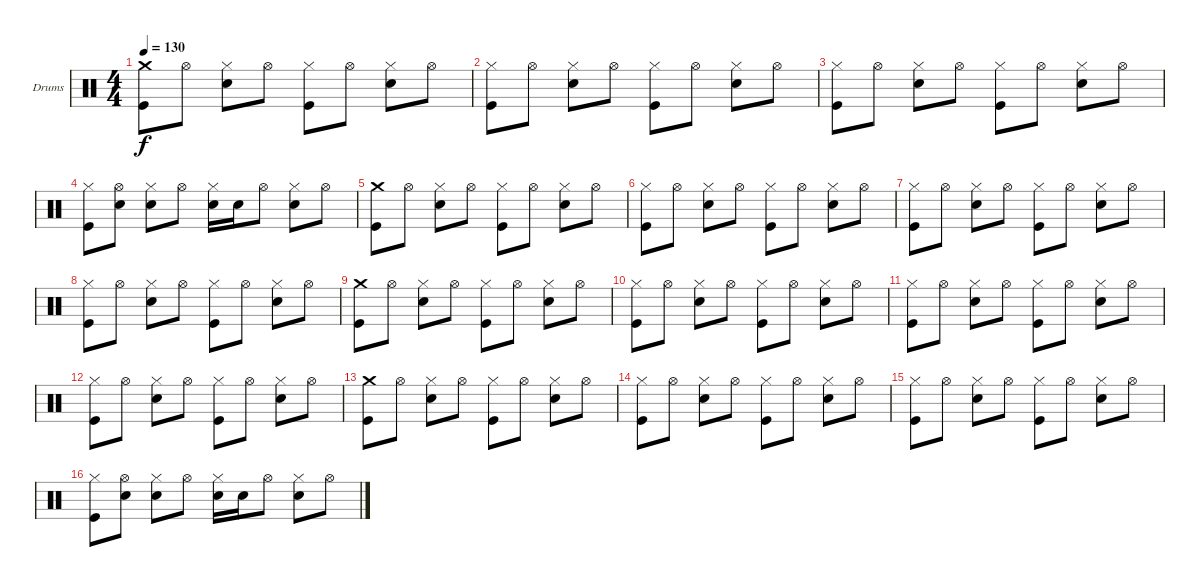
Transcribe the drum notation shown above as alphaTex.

\bracketExtendMode groupsimilarinstruments
\firstSystemTrackNameOrientation horizontal
\otherSystemsTrackNameOrientation horizontal
\track ("Drumkit" "Drums") {instrument percussion}
\staff {score}
\articulation defaults
\ts (4 4)
\tempo 130
\clef neutral
\ks c
("Crash medium (hit)" "Kick (hit)").8{dy f} "Hi-Hat (open)".8 ("Hi-Hat (closed)" "Snare (hit) 2").8 "Hi-Hat (open)".8 ("Hi-Hat (closed)" "Kick (hit)").8 "Hi-Hat (open)".8 ("Hi-Hat (closed)" "Snare (hit) 2").8 "Hi-Hat (open)".8 |
("Hi-Hat (closed)" "Kick (hit)").8 "Hi-Hat (open)".8 ("Hi-Hat (closed)" "Snare (hit) 2").8 "Hi-Hat (open)".8 ("Hi-Hat (closed)" "Kick (hit)").8 "Hi-Hat (open)".8 ("Hi-Hat (closed)" "Snare (hit) 2").8 "Hi-Hat (open)".8 |
("Hi-Hat (closed)" "Kick (hit)").8 "Hi-Hat (open)".8 ("Hi-Hat (closed)" "Snare (hit) 2").8 "Hi-Hat (open)".8 ("Hi-Hat (closed)" "Kick (hit)").8 "Hi-Hat (open)".8 ("Hi-Hat (closed)" "Snare (hit) 2").8 "Hi-Hat (open)".8 |
("Hi-Hat (closed)" "Kick (hit)").8 ("Hi-Hat (open)" "Snare (hit) 2").8 ("Hi-Hat (closed)" "Snare (hit) 2").8 "Hi-Hat (open)".8 ("Hi-Hat (closed)" "Snare (hit) 2").16 "Snare (hit) 2".16 "Hi-Hat (open)".8 ("Hi-Hat (closed)" "Snare (hit) 2").8 "Hi-Hat (open)".8 |
("Crash medium (hit)" "Kick (hit)").8 "Hi-Hat (open)".8 ("Hi-Hat (closed)" "Snare (hit) 2").8 "Hi-Hat (open)".8 ("Hi-Hat (closed)" "Kick (hit)").8 "Hi-Hat (open)".8 ("Hi-Hat (closed)" "Snare (hit) 2").8 "Hi-Hat (open)".8 |
("Hi-Hat (closed)" "Kick (hit)").8 "Hi-Hat (open)".8 ("Hi-Hat (closed)" "Snare (hit) 2").8 "Hi-Hat (open)".8 ("Hi-Hat (closed)" "Kick (hit)").8 "Hi-Hat (open)".8 ("Hi-Hat (closed)" "Snare (hit) 2").8 "Hi-Hat (open)".8 |
("Hi-Hat (closed)" "Kick (hit)").8 "Hi-Hat (open)".8 ("Hi-Hat (closed)" "Snare (hit) 2").8 "Hi-Hat (open)".8 ("Hi-Hat (closed)" "Kick (hit)").8 "Hi-Hat (open)".8 ("Hi-Hat (closed)" "Snare (hit) 2").8 "Hi-Hat (open)".8 |
("Hi-Hat (closed)" "Kick (hit)").8 "Hi-Hat (open)".8 ("Hi-Hat (closed)" "Snare (hit) 2").8 "Hi-Hat (open)".8 ("Hi-Hat (closed)" "Kick (hit)").8 "Hi-Hat (open)".8 ("Hi-Hat (closed)" "Snare (hit) 2").8 "Hi-Hat (open)".8 |
("Crash medium (hit)" "Kick (hit)").8 "Hi-Hat (open)".8 ("Hi-Hat (closed)" "Snare (hit) 2").8 "Hi-Hat (open)".8 ("Hi-Hat (closed)" "Kick (hit)").8 "Hi-Hat (open)".8 ("Hi-Hat (closed)" "Snare (hit) 2").8 "Hi-Hat (open)".8 |
("Hi-Hat (closed)" "Kick (hit)").8 "Hi-Hat (open)".8 ("Hi-Hat (closed)" "Snare (hit) 2").8 "Hi-Hat (open)".8 ("Hi-Hat (closed)" "Kick (hit)").8 "Hi-Hat (open)".8 ("Hi-Hat (closed)" "Snare (hit) 2").8 "Hi-Hat (open)".8 |
("Hi-Hat (closed)" "Kick (hit)").8 "Hi-Hat (open)".8 ("Hi-Hat (closed)" "Snare (hit) 2").8 "Hi-Hat (open)".8 ("Hi-Hat (closed)" "Kick (hit)").8 "Hi-Hat (open)".8 ("Hi-Hat (closed)" "Snare (hit) 2").8 "Hi-Hat (open)".8 |
("Hi-Hat (closed)" "Kick (hit)").8 "Hi-Hat (open)".8 ("Hi-Hat (closed)" "Snare (hit) 2").8 "Hi-Hat (open)".8 ("Hi-Hat (closed)" "Kick (hit)").8 "Hi-Hat (open)".8 ("Hi-Hat (closed)" "Snare (hit) 2").8 "Hi-Hat (open)".8 |
("Crash medium (hit)" "Kick (hit)").8 "Hi-Hat (open)".8 ("Hi-Hat (closed)" "Snare (hit) 2").8 "Hi-Hat (open)".8 ("Hi-Hat (closed)" "Kick (hit)").8 "Hi-Hat (open)".8 ("Hi-Hat (closed)" "Snare (hit) 2").8 "Hi-Hat (open)".8 |
("Hi-Hat (closed)" "Kick (hit)").8 "Hi-Hat (open)".8 ("Hi-Hat (closed)" "Snare (hit) 2").8 "Hi-Hat (open)".8 ("Hi-Hat (closed)" "Kick (hit)").8 "Hi-Hat (open)".8 ("Hi-Hat (closed)" "Snare (hit) 2").8 "Hi-Hat (open)".8 |
("Hi-Hat (closed)" "Kick (hit)").8 "Hi-Hat (open)".8 ("Hi-Hat (closed)" "Snare (hit) 2").8 "Hi-Hat (open)".8 ("Hi-Hat (closed)" "Kick (hit)").8 "Hi-Hat (open)".8 ("Hi-Hat (closed)" "Snare (hit) 2").8 "Hi-Hat (open)".8 |
("Hi-Hat (closed)" "Kick (hit)").8 ("Hi-Hat (open)" "Snare (hit) 2").8 ("Hi-Hat (closed)" "Snare (hit) 2").8 "Hi-Hat (open)".8 ("Hi-Hat (closed)" "Snare (hit) 2").16 "Snare (hit) 2".16 "Hi-Hat (open)".8 ("Hi-Hat (closed)" "Snare (hit) 2").8 "Hi-Hat (open)".8
